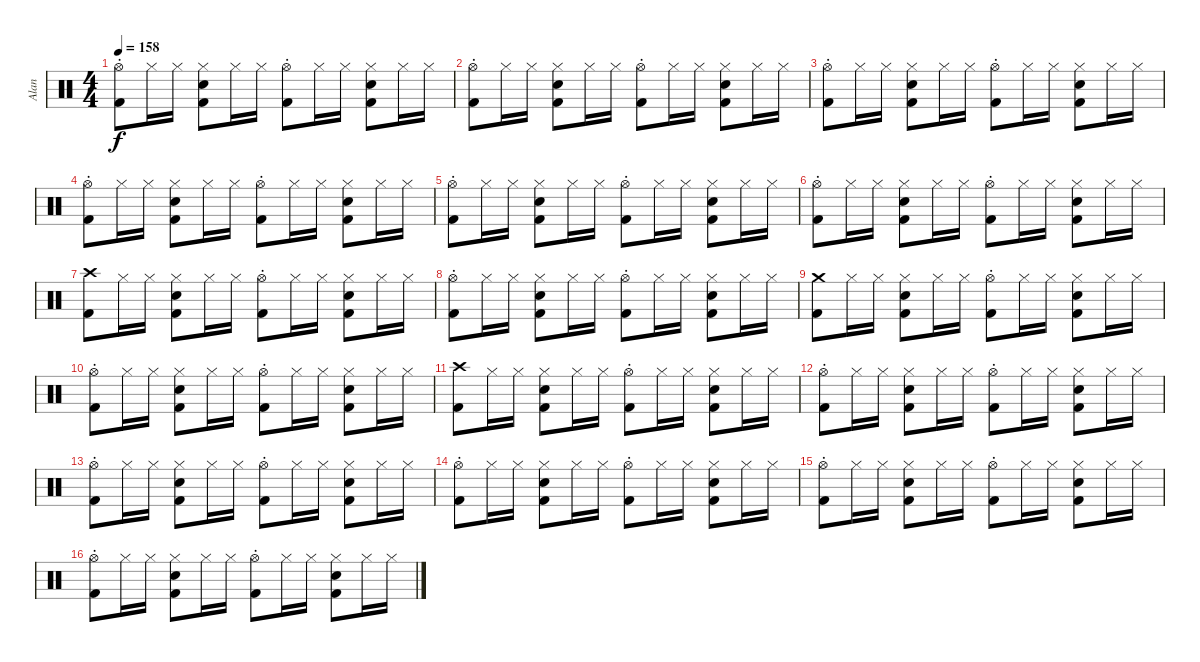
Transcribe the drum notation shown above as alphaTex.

\track ("Alan" "Alan") {instrument percussion}
\staff {score}
\articulation defaults
\ts (4 4)
\tempo 158
\clef neutral
\ks c
("Hi-Hat (open)"{st} "Kick (hit) 2").8{dy f} "Hi-Hat (closed)".16 "Hi-Hat (closed)".16 ("Hi-Hat (closed)" "Kick (hit) 2" "Snare (hit) 2").8 "Hi-Hat (closed)".16 "Hi-Hat (closed)".16 ("Hi-Hat (open)"{st} "Kick (hit) 2").8 "Hi-Hat (closed)".16 "Hi-Hat (closed)".16 ("Hi-Hat (closed)" "Kick (hit) 2" "Snare (hit) 2").8 "Hi-Hat (closed)".16 "Hi-Hat (closed)".16 |
("Hi-Hat (open)"{st} "Kick (hit) 2").8 "Hi-Hat (closed)".16 "Hi-Hat (closed)".16 ("Hi-Hat (closed)" "Kick (hit) 2" "Snare (hit) 2").8 "Hi-Hat (closed)".16 "Hi-Hat (closed)".16 ("Hi-Hat (open)"{st} "Kick (hit) 2").8 "Hi-Hat (closed)".16 "Hi-Hat (closed)".16 ("Hi-Hat (closed)" "Kick (hit) 2" "Snare (hit) 2").8 "Hi-Hat (closed)".16 "Hi-Hat (closed)".16 |
("Hi-Hat (open)"{st} "Kick (hit) 2").8 "Hi-Hat (closed)".16 "Hi-Hat (closed)".16 ("Hi-Hat (closed)" "Kick (hit) 2" "Snare (hit) 2").8 "Hi-Hat (closed)".16 "Hi-Hat (closed)".16 ("Hi-Hat (open)"{st} "Kick (hit) 2").8 "Hi-Hat (closed)".16 "Hi-Hat (closed)".16 ("Hi-Hat (closed)" "Kick (hit) 2" "Snare (hit) 2").8 "Hi-Hat (closed)".16 "Hi-Hat (closed)".16 |
("Hi-Hat (open)"{st} "Kick (hit) 2").8 "Hi-Hat (closed)".16 "Hi-Hat (closed)".16 ("Hi-Hat (closed)" "Kick (hit) 2" "Snare (hit) 2").8 "Hi-Hat (closed)".16 "Hi-Hat (closed)".16 ("Hi-Hat (open)"{st} "Kick (hit) 2").8 "Hi-Hat (closed)".16 "Hi-Hat (closed)".16 ("Hi-Hat (closed)" "Kick (hit) 2" "Snare (hit) 2").8 "Hi-Hat (closed)".16 "Hi-Hat (closed)".16 |
("Hi-Hat (open)"{st} "Kick (hit) 2").8 "Hi-Hat (closed)".16 "Hi-Hat (closed)".16 ("Hi-Hat (closed)" "Kick (hit) 2" "Snare (hit) 2").8 "Hi-Hat (closed)".16 "Hi-Hat (closed)".16 ("Hi-Hat (open)"{st} "Kick (hit) 2").8 "Hi-Hat (closed)".16 "Hi-Hat (closed)".16 ("Hi-Hat (closed)" "Kick (hit) 2" "Snare (hit) 2").8 "Hi-Hat (closed)".16 "Hi-Hat (closed)".16 |
("Hi-Hat (open)"{st} "Kick (hit) 2").8 "Hi-Hat (closed)".16 "Hi-Hat (closed)".16 ("Hi-Hat (closed)" "Kick (hit) 2" "Snare (hit) 2").8 "Hi-Hat (closed)".16 "Hi-Hat (closed)".16 ("Hi-Hat (open)"{st} "Kick (hit) 2").8 "Hi-Hat (closed)".16 "Hi-Hat (closed)".16 ("Hi-Hat (closed)" "Kick (hit) 2" "Snare (hit) 2").8 "Hi-Hat (closed)".16 "Hi-Hat (closed)".16 |
("Crash high (hit)" "Kick (hit) 2").8 "Hi-Hat (closed)".16 "Hi-Hat (closed)".16 ("Hi-Hat (closed)" "Kick (hit) 2" "Snare (hit) 2").8 "Hi-Hat (closed)".16 "Hi-Hat (closed)".16 ("Hi-Hat (open)"{st} "Kick (hit) 2").8 "Hi-Hat (closed)".16 "Hi-Hat (closed)".16 ("Hi-Hat (closed)" "Kick (hit) 2" "Snare (hit) 2").8 "Hi-Hat (closed)".16 "Hi-Hat (closed)".16 |
("Hi-Hat (open)"{st} "Kick (hit) 2").8 "Hi-Hat (closed)".16 "Hi-Hat (closed)".16 ("Hi-Hat (closed)" "Kick (hit) 2" "Snare (hit) 2").8 "Hi-Hat (closed)".16 "Hi-Hat (closed)".16 ("Hi-Hat (open)"{st} "Kick (hit) 2").8 "Hi-Hat (closed)".16 "Hi-Hat (closed)".16 ("Hi-Hat (closed)" "Kick (hit) 2" "Snare (hit) 2").8 "Hi-Hat (closed)".16 "Hi-Hat (closed)".16 |
("Crash medium (hit)" "Kick (hit) 2").8 "Hi-Hat (closed)".16 "Hi-Hat (closed)".16 ("Hi-Hat (closed)" "Kick (hit) 2" "Snare (hit) 2").8 "Hi-Hat (closed)".16 "Hi-Hat (closed)".16 ("Hi-Hat (open)"{st} "Kick (hit) 2").8 "Hi-Hat (closed)".16 "Hi-Hat (closed)".16 ("Hi-Hat (closed)" "Kick (hit) 2" "Snare (hit) 2").8 "Hi-Hat (closed)".16 "Hi-Hat (closed)".16 |
("Hi-Hat (open)"{st} "Kick (hit) 2").8 "Hi-Hat (closed)".16 "Hi-Hat (closed)".16 ("Hi-Hat (closed)" "Kick (hit) 2" "Snare (hit) 2").8 "Hi-Hat (closed)".16 "Hi-Hat (closed)".16 ("Hi-Hat (open)"{st} "Kick (hit) 2").8 "Hi-Hat (closed)".16 "Hi-Hat (closed)".16 ("Hi-Hat (closed)" "Kick (hit) 2" "Snare (hit) 2").8 "Hi-Hat (closed)".16 "Hi-Hat (closed)".16 |
("Crash high (hit)" "Kick (hit) 2").8 "Hi-Hat (closed)".16 "Hi-Hat (closed)".16 ("Hi-Hat (closed)" "Kick (hit) 2" "Snare (hit) 2").8 "Hi-Hat (closed)".16 "Hi-Hat (closed)".16 ("Hi-Hat (open)"{st} "Kick (hit) 2").8 "Hi-Hat (closed)".16 "Hi-Hat (closed)".16 ("Hi-Hat (closed)" "Kick (hit) 2" "Snare (hit) 2").8 "Hi-Hat (closed)".16 "Hi-Hat (closed)".16 |
("Hi-Hat (open)"{st} "Kick (hit) 2").8 "Hi-Hat (closed)".16 "Hi-Hat (closed)".16 ("Hi-Hat (closed)" "Kick (hit) 2" "Snare (hit) 2").8 "Hi-Hat (closed)".16 "Hi-Hat (closed)".16 ("Hi-Hat (open)"{st} "Kick (hit) 2").8 "Hi-Hat (closed)".16 "Hi-Hat (closed)".16 ("Hi-Hat (closed)" "Kick (hit) 2" "Snare (hit) 2").8 "Hi-Hat (closed)".16 "Hi-Hat (closed)".16 |
("Hi-Hat (open)"{st} "Kick (hit) 2").8 "Hi-Hat (closed)".16 "Hi-Hat (closed)".16 ("Hi-Hat (closed)" "Kick (hit) 2" "Snare (hit) 2").8 "Hi-Hat (closed)".16 "Hi-Hat (closed)".16 ("Hi-Hat (open)"{st} "Kick (hit) 2").8 "Hi-Hat (closed)".16 "Hi-Hat (closed)".16 ("Hi-Hat (closed)" "Kick (hit) 2" "Snare (hit) 2").8 "Hi-Hat (closed)".16 "Hi-Hat (closed)".16 |
("Hi-Hat (open)"{st} "Kick (hit) 2").8 "Hi-Hat (closed)".16 "Hi-Hat (closed)".16 ("Hi-Hat (closed)" "Kick (hit) 2" "Snare (hit) 2").8 "Hi-Hat (closed)".16 "Hi-Hat (closed)".16 ("Hi-Hat (open)"{st} "Kick (hit) 2").8 "Hi-Hat (closed)".16 "Hi-Hat (closed)".16 ("Hi-Hat (closed)" "Kick (hit) 2" "Snare (hit) 2").8 "Hi-Hat (closed)".16 "Hi-Hat (closed)".16 |
("Hi-Hat (open)"{st} "Kick (hit) 2").8 "Hi-Hat (closed)".16 "Hi-Hat (closed)".16 ("Hi-Hat (closed)" "Kick (hit) 2" "Snare (hit) 2").8 "Hi-Hat (closed)".16 "Hi-Hat (closed)".16 ("Hi-Hat (open)"{st} "Kick (hit) 2").8 "Hi-Hat (closed)".16 "Hi-Hat (closed)".16 ("Hi-Hat (closed)" "Kick (hit) 2" "Snare (hit) 2").8 "Hi-Hat (closed)".16 "Hi-Hat (closed)".16 |
("Hi-Hat (open)"{st} "Kick (hit) 2").8 "Hi-Hat (closed)".16 "Hi-Hat (closed)".16 ("Hi-Hat (closed)" "Kick (hit) 2" "Snare (hit) 2").8 "Hi-Hat (closed)".16 "Hi-Hat (closed)".16 ("Hi-Hat (open)"{st} "Kick (hit) 2").8 "Hi-Hat (closed)".16 "Hi-Hat (closed)".16 ("Hi-Hat (closed)" "Kick (hit) 2" "Snare (hit) 2").8 "Hi-Hat (closed)".16 "Hi-Hat (closed)".16
